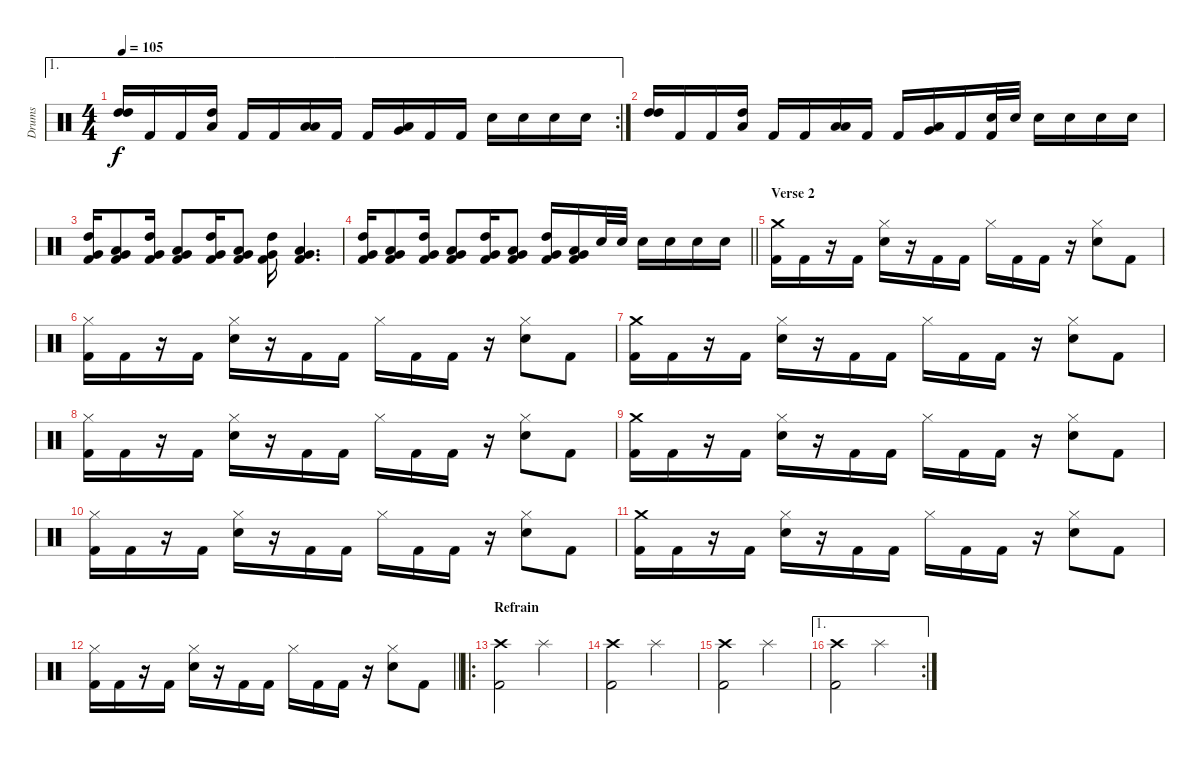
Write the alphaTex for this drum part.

\track ("Drums" "Drums") {instrument percussion}
\staff {score}
\articulation defaults
\ae 1
\rc 2
\ts (4 4)
\tempo 105
\clef neutral
\ks c
("High Tom (hit)" "High Tom (hit)").16{dy f} "Kick (hit) 2".16 "Kick (hit) 2".16 ("High Tom (hit)" "Low Tom (hit)").16 "Kick (hit) 2".16 "Kick (hit) 2".16 ("Low Tom (hit)" "Low Tom (hit)").16 "Kick (hit) 2".16 "Kick (hit) 2".16 ("Low Tom (hit)" "Very Low Tom (hit)").16 "Kick (hit) 2".16 "Kick (hit) 2".16 "Snare (hit) 2".16 "Snare (hit) 2".16 "Snare (hit) 2".16 "Snare (hit) 2".16 |
("High Tom (hit)" "High Tom (hit)").16 "Kick (hit) 2".16 "Kick (hit) 2".16 ("High Tom (hit)" "Low Tom (hit)").16 "Kick (hit) 2".16 "Kick (hit) 2".16 ("Low Tom (hit)" "Low Tom (hit)").16 "Kick (hit) 2".16 "Kick (hit) 2".16 ("Low Tom (hit)" "Very Low Tom (hit)").16 "Kick (hit) 2".16 ("Snare (hit) 2" "Kick (hit) 2").32 "Snare (hit) 2".32 "Snare (hit) 2".16 "Snare (hit) 2".16 "Snare (hit) 2".16 "Snare (hit) 2".16 |
("Kick (hit) 2" "Very Low Tom (hit)" "High Tom (hit)").16 ("Kick (hit) 2" "Very Low Tom (hit)" "Low Tom (hit)").8 ("Kick (hit) 2" "Very Low Tom (hit)" "High Tom (hit)").16 ("Kick (hit) 2" "Very Low Tom (hit)" "Low Tom (hit)").8 ("Kick (hit) 2" "Very Low Tom (hit)" "High Tom (hit)").16 ("Kick (hit) 2" "Very Low Tom (hit)" "Low Tom (hit)").8 ("Kick (hit) 2" "Very Low Tom (hit)" "High Tom (hit)").16 ("Kick (hit) 2" "Very Low Tom (hit)" "Low Tom (hit)").4{d} |
\barLineRight lightlight
("Kick (hit) 2" "Very Low Tom (hit)" "High Tom (hit)").16 ("Kick (hit) 2" "Very Low Tom (hit)" "Low Tom (hit)").8 ("Kick (hit) 2" "Very Low Tom (hit)" "High Tom (hit)").16 ("Kick (hit) 2" "Very Low Tom (hit)" "Low Tom (hit)").8 ("Kick (hit) 2" "Very Low Tom (hit)" "High Tom (hit)").16 ("Kick (hit) 2" "Very Low Tom (hit)" "Low Tom (hit)").8 ("Kick (hit) 2" "Very Low Tom (hit)" "High Tom (hit)").16 ("Kick (hit) 2" "Very Low Tom (hit)" "Low Tom (hit)").16 "Snare (hit) 2".32 "Snare (hit) 2".32 "Snare (hit) 2".16 "Snare (hit) 2".16 "Snare (hit) 2".16 "Snare (hit) 2".16 |
\section ("" "Verse 2")
("Kick (hit) 2" "Crash medium (hit)").16 "Kick (hit) 2".16 r.16 "Kick (hit) 2".16 ("Snare (hit) 2" "Hi-Hat (closed)").16 r.16 "Kick (hit) 2".16 "Kick (hit) 2".16 "Hi-Hat (closed)".16 "Kick (hit) 2".16 "Kick (hit) 2".16 r.16 ("Snare (hit) 2" "Hi-Hat (closed)").8 "Kick (hit) 2".8 |
("Kick (hit) 2" "Hi-Hat (closed)").16 "Kick (hit) 2".16 r.16 "Kick (hit) 2".16 ("Snare (hit) 2" "Hi-Hat (closed)").16 r.16 "Kick (hit) 2".16 "Kick (hit) 2".16 "Hi-Hat (closed)".16 "Kick (hit) 2".16 "Kick (hit) 2".16 r.16 ("Snare (hit) 2" "Hi-Hat (closed)").8 "Kick (hit) 2".8 |
("Kick (hit) 2" "Crash medium (hit)").16 "Kick (hit) 2".16 r.16 "Kick (hit) 2".16 ("Snare (hit) 2" "Hi-Hat (closed)").16 r.16 "Kick (hit) 2".16 "Kick (hit) 2".16 "Hi-Hat (closed)".16 "Kick (hit) 2".16 "Kick (hit) 2".16 r.16 ("Snare (hit) 2" "Hi-Hat (closed)").8 "Kick (hit) 2".8 |
("Kick (hit) 2" "Hi-Hat (closed)").16 "Kick (hit) 2".16 r.16 "Kick (hit) 2".16 ("Snare (hit) 2" "Hi-Hat (closed)").16 r.16 "Kick (hit) 2".16 "Kick (hit) 2".16 "Hi-Hat (closed)".16 "Kick (hit) 2".16 "Kick (hit) 2".16 r.16 ("Snare (hit) 2" "Hi-Hat (closed)").8 "Kick (hit) 2".8 |
("Kick (hit) 2" "Crash medium (hit)").16 "Kick (hit) 2".16 r.16 "Kick (hit) 2".16 ("Snare (hit) 2" "Hi-Hat (closed)").16 r.16 "Kick (hit) 2".16 "Kick (hit) 2".16 "Hi-Hat (closed)".16 "Kick (hit) 2".16 "Kick (hit) 2".16 r.16 ("Snare (hit) 2" "Hi-Hat (closed)").8 "Kick (hit) 2".8 |
("Kick (hit) 2" "Hi-Hat (closed)").16 "Kick (hit) 2".16 r.16 "Kick (hit) 2".16 ("Snare (hit) 2" "Hi-Hat (closed)").16 r.16 "Kick (hit) 2".16 "Kick (hit) 2".16 "Hi-Hat (closed)".16 "Kick (hit) 2".16 "Kick (hit) 2".16 r.16 ("Snare (hit) 2" "Hi-Hat (closed)").8 "Kick (hit) 2".8 |
("Kick (hit) 2" "Crash medium (hit)").16 "Kick (hit) 2".16 r.16 "Kick (hit) 2".16 ("Snare (hit) 2" "Hi-Hat (closed)").16 r.16 "Kick (hit) 2".16 "Kick (hit) 2".16 "Hi-Hat (closed)".16 "Kick (hit) 2".16 "Kick (hit) 2".16 r.16 ("Snare (hit) 2" "Hi-Hat (closed)").8 "Kick (hit) 2".8 |
\barLineRight lightlight
("Kick (hit) 2" "Hi-Hat (closed)").16 "Kick (hit) 2".16 r.16 "Kick (hit) 2".16 ("Snare (hit) 2" "Hi-Hat (closed)").16 r.16 "Kick (hit) 2".16 "Kick (hit) 2".16 "Hi-Hat (closed)".16 "Kick (hit) 2".16 "Kick (hit) 2".16 r.16 ("Snare (hit) 2" "Hi-Hat (closed)").8 "Kick (hit) 2".8 |
\ro
\section ("" "Refrain")
("Kick (hit) 2" "Crash high (hit)").2 "Splash (hit)".2 |
("Kick (hit) 2" "Crash high (hit)").2 "Splash (hit)".2 |
("Kick (hit) 2" "Crash high (hit)").2 "Splash (hit)".2 |
\ae 1
\rc 2
("Kick (hit) 2" "Crash high (hit)").2 "Splash (hit)".2
